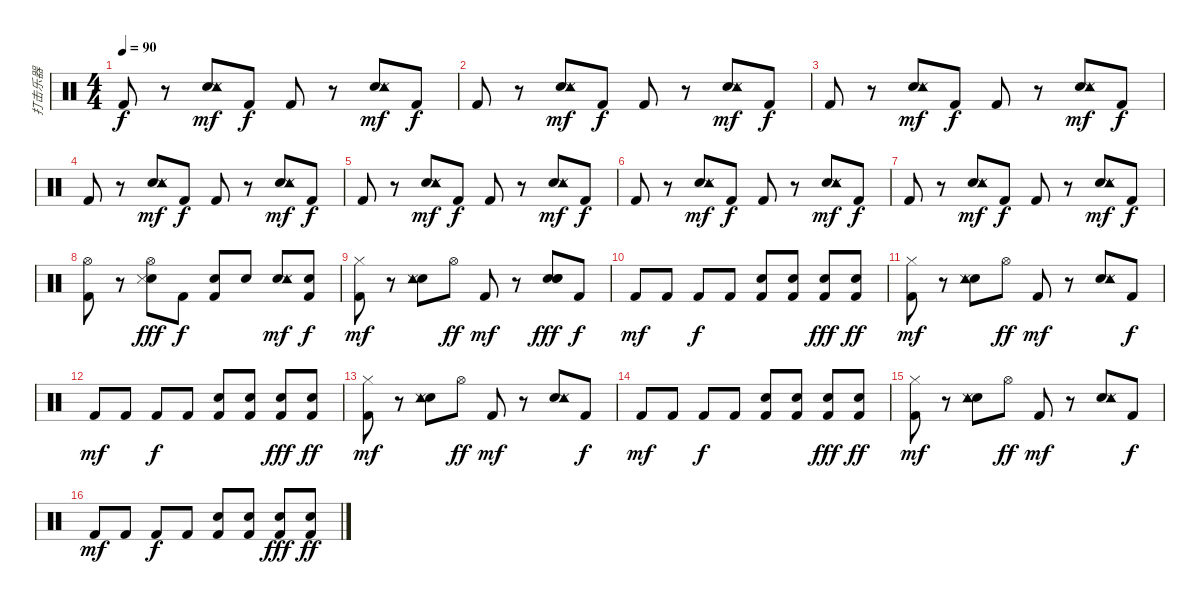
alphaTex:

\track ("打击乐器" "打击乐器") {instrument percussion}
\staff {score}
\articulation defaults
\ts (4 4)
\tempo 90
\clef neutral
\ks c "Kick (hit) 2".8{dy f}
r.8 ("Snare (hit) 2" "Snare (side stick) 3" "Tambourine (hit)").8{dy mf} "Kick (hit) 2".8{dy f} "Kick (hit) 2".8 r.8 ("Snare (hit) 2" "Snare (side stick) 3" "Tambourine (hit)").8{dy mf} "Kick (hit) 2".8{dy f} |
"Kick (hit) 2".8 r.8 ("Snare (hit) 2" "Snare (side stick) 3" "Tambourine (hit)").8{dy mf} "Kick (hit) 2".8{dy f} "Kick (hit) 2".8 r.8 ("Snare (hit) 2" "Snare (side stick) 3" "Tambourine (hit)").8{dy mf} "Kick (hit) 2".8{dy f} |
"Kick (hit) 2".8 r.8 ("Snare (hit) 2" "Snare (side stick) 3" "Tambourine (hit)").8{dy mf} "Kick (hit) 2".8{dy f} "Kick (hit) 2".8 r.8 ("Snare (hit) 2" "Snare (side stick) 3" "Tambourine (hit)").8{dy mf} "Kick (hit) 2".8{dy f} |
"Kick (hit) 2".8 r.8 ("Snare (hit) 2" "Snare (side stick) 3" "Tambourine (hit)").8{dy mf} "Kick (hit) 2".8{dy f} "Kick (hit) 2".8 r.8 ("Snare (hit) 2" "Snare (side stick) 3" "Tambourine (hit)").8{dy mf} "Kick (hit) 2".8{dy f} |
"Kick (hit) 2".8 r.8 ("Snare (hit) 2" "Snare (side stick) 3" "Tambourine (hit)").8{dy mf} "Kick (hit) 2".8{dy f} "Kick (hit) 2".8 r.8 ("Snare (hit) 2" "Snare (side stick) 3" "Tambourine (hit)").8{dy mf} "Kick (hit) 2".8{dy f} |
"Kick (hit) 2".8 r.8 ("Snare (hit) 2" "Snare (side stick) 3" "Tambourine (hit)").8{dy mf} "Kick (hit) 2".8{dy f} "Kick (hit) 2".8 r.8 ("Snare (hit) 2" "Snare (side stick) 3" "Tambourine (hit)").8{dy mf} "Kick (hit) 2".8{dy f} |
"Kick (hit) 2".8 r.8 ("Snare (hit) 2" "Snare (side stick) 3" "Tambourine (hit)").8{dy mf} "Kick (hit) 2".8{dy f} "Kick (hit) 2".8 r.8 ("Snare (hit) 2" "Snare (side stick) 3" "Tambourine (hit)").8{dy mf} "Kick (hit) 2".8{dy f} |
("Kick (hit) 2" "Hi-Hat (open)").8 r.8 ("Snare (hit) 2" "Snare (side stick) 3" "Hi-Hat (open)").8{dy fff} "Kick (hit) 2".8{dy f} ("Kick (hit) 2" "Electric Snare (hit)").8 "Electric Snare (hit)".8 ("Electric Snare (hit)" "Snare (side stick) 3" "Tambourine (hit)").8{dy mf} ("Kick (hit) 2" "Electric Snare (hit)").8{dy f} |
("Kick (hit) 2" "Hi-Hat (closed)").8{dy mf volume 15} r.8 ("Snare (hit) 2" "Snare (side stick) 3" "Tambourine (hit)").8 "Hi-Hat (open)".8{dy ff} "Kick (hit) 2".8{dy mf} r.8 ("Snare (hit) 2" "Electric Snare (hit)" "Electric Snare (hit)").8{dy fff} "Kick (hit) 2".8{dy f} |
"Kick (hit) 2".8{dy mf} "Kick (hit) 2".8 "Kick (hit) 2".8{dy f} "Kick (hit) 2".8 ("Kick (hit) 2" "Electric Snare (hit)").8 ("Kick (hit) 2" "Electric Snare (hit)").8 ("Kick (hit) 2" "Electric Snare (hit)").8{dy fff} ("Kick (hit) 2" "Electric Snare (hit)").8{dy ff} |
("Kick (hit) 2" "Hi-Hat (closed)").8{dy mf volume 15} r.8 ("Snare (hit) 2" "Snare (side stick) 3" "Tambourine (hit)").8 "Hi-Hat (open)".8{dy ff} "Kick (hit) 2".8{dy mf} r.8 ("Snare (hit) 2" "Snare (side stick) 3" "Tambourine (hit)").8 "Kick (hit) 2".8{dy f} |
"Kick (hit) 2".8{dy mf} "Kick (hit) 2".8 "Kick (hit) 2".8{dy f} "Kick (hit) 2".8 ("Kick (hit) 2" "Electric Snare (hit)").8 ("Kick (hit) 2" "Electric Snare (hit)").8 ("Kick (hit) 2" "Electric Snare (hit)").8{dy fff} ("Kick (hit) 2" "Electric Snare (hit)").8{dy ff} |
("Kick (hit) 2" "Hi-Hat (closed)").8{dy mf volume 15} r.8 ("Snare (hit) 2" "Snare (side stick) 3" "Tambourine (hit)").8 "Hi-Hat (open)".8{dy ff} "Kick (hit) 2".8{dy mf} r.8 ("Snare (hit) 2" "Snare (side stick) 3" "Tambourine (hit)").8 "Kick (hit) 2".8{dy f} |
"Kick (hit) 2".8{dy mf} "Kick (hit) 2".8 "Kick (hit) 2".8{dy f} "Kick (hit) 2".8 ("Kick (hit) 2" "Electric Snare (hit)").8 ("Kick (hit) 2" "Electric Snare (hit)").8 ("Kick (hit) 2" "Electric Snare (hit)").8{dy fff} ("Kick (hit) 2" "Electric Snare (hit)").8{dy ff} |
("Kick (hit) 2" "Hi-Hat (closed)").8{dy mf volume 15} r.8 ("Snare (hit) 2" "Snare (side stick) 3" "Tambourine (hit)").8 "Hi-Hat (open)".8{dy ff} "Kick (hit) 2".8{dy mf} r.8 ("Snare (hit) 2" "Snare (side stick) 3" "Tambourine (hit)").8 "Kick (hit) 2".8{dy f} |
"Kick (hit) 2".8{dy mf} "Kick (hit) 2".8 "Kick (hit) 2".8{dy f} "Kick (hit) 2".8 ("Kick (hit) 2" "Electric Snare (hit)").8 ("Kick (hit) 2" "Electric Snare (hit)").8 ("Kick (hit) 2" "Electric Snare (hit)").8{dy fff} ("Kick (hit) 2" "Electric Snare (hit)").8{dy ff}
